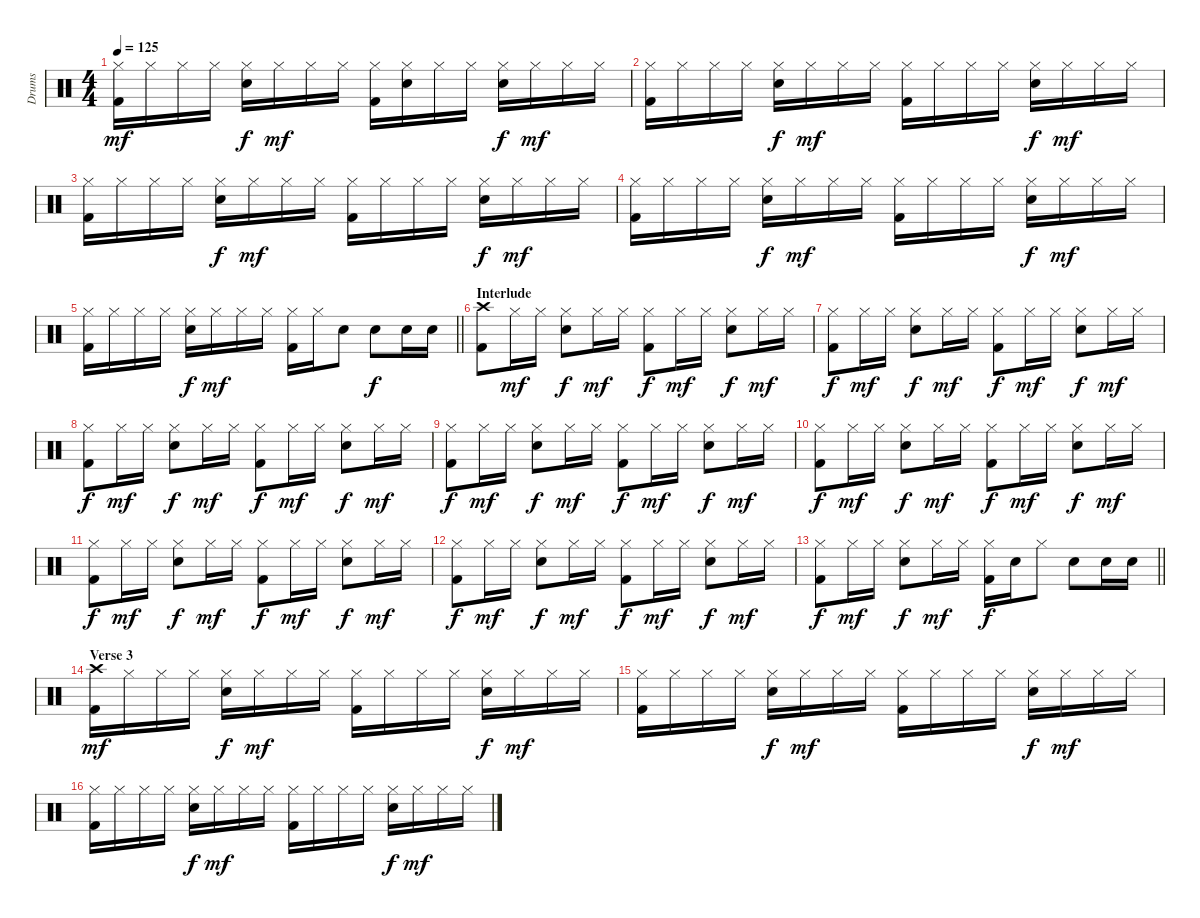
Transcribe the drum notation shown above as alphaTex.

\track ("Drums" "Drums") {instrument percussion}
\staff {score}
\articulation defaults
\ts (4 4)
\tempo 125
\clef neutral
\ks c
("Hi-Hat (closed)" "Kick (hit) 2").16{dy mf} "Hi-Hat (closed)".16 "Hi-Hat (closed)".16 "Hi-Hat (closed)".16 ("Hi-Hat (closed)" "Snare (hit) 2").16{dy f} "Hi-Hat (closed)".16{dy mf} "Hi-Hat (closed)".16 "Hi-Hat (closed)".16 ("Hi-Hat (closed)" "Kick (hit) 2").16 ("Hi-Hat (closed)" "Snare (hit) 2").16 "Hi-Hat (closed)".16 "Hi-Hat (closed)".16 ("Hi-Hat (closed)" "Snare (hit) 2").16{dy f} "Hi-Hat (closed)".16{dy mf} "Hi-Hat (closed)".16 "Hi-Hat (closed)".16 |
("Hi-Hat (closed)" "Kick (hit) 2").16 "Hi-Hat (closed)".16 "Hi-Hat (closed)".16 "Hi-Hat (closed)".16 ("Hi-Hat (closed)" "Snare (hit) 2").16{dy f} "Hi-Hat (closed)".16{dy mf} "Hi-Hat (closed)".16 "Hi-Hat (closed)".16 ("Hi-Hat (closed)" "Kick (hit) 2").16 "Hi-Hat (closed)".16 "Hi-Hat (closed)".16 "Hi-Hat (closed)".16 ("Hi-Hat (closed)" "Snare (hit) 2").16{dy f} "Hi-Hat (closed)".16{dy mf} "Hi-Hat (closed)".16 "Hi-Hat (closed)".16 |
("Hi-Hat (closed)" "Kick (hit) 2").16 "Hi-Hat (closed)".16 "Hi-Hat (closed)".16 "Hi-Hat (closed)".16 ("Hi-Hat (closed)" "Snare (hit) 2").16{dy f} "Hi-Hat (closed)".16{dy mf} "Hi-Hat (closed)".16 "Hi-Hat (closed)".16 ("Hi-Hat (closed)" "Kick (hit) 2").16 "Hi-Hat (closed)".16 "Hi-Hat (closed)".16 "Hi-Hat (closed)".16 ("Hi-Hat (closed)" "Snare (hit) 2").16{dy f} "Hi-Hat (closed)".16{dy mf} "Hi-Hat (closed)".16 "Hi-Hat (closed)".16 |
("Hi-Hat (closed)" "Kick (hit) 2").16 "Hi-Hat (closed)".16 "Hi-Hat (closed)".16 "Hi-Hat (closed)".16 ("Hi-Hat (closed)" "Snare (hit) 2").16{dy f} "Hi-Hat (closed)".16{dy mf} "Hi-Hat (closed)".16 "Hi-Hat (closed)".16 ("Hi-Hat (closed)" "Kick (hit) 2").16 "Hi-Hat (closed)".16 "Hi-Hat (closed)".16 "Hi-Hat (closed)".16 ("Hi-Hat (closed)" "Snare (hit) 2").16{dy f} "Hi-Hat (closed)".16{dy mf} "Hi-Hat (closed)".16 "Hi-Hat (closed)".16 |
\barLineRight lightlight
("Hi-Hat (closed)" "Kick (hit) 2").16 "Hi-Hat (closed)".16 "Hi-Hat (closed)".16 "Hi-Hat (closed)".16 ("Hi-Hat (closed)" "Snare (hit) 2").16{dy f} "Hi-Hat (closed)".16{dy mf} "Hi-Hat (closed)".16 "Hi-Hat (closed)".16 ("Hi-Hat (closed)" "Kick (hit) 2").16 "Hi-Hat (closed)".16 "Snare (hit) 2".8 "Snare (hit) 2".8{dy f} "Snare (hit) 2".16 "Snare (hit) 2".16 |
\section ("" "Interlude")
("Crash high (hit)" "Kick (hit) 2").8 "Hi-Hat (closed)".16{dy mf} "Hi-Hat (closed)".16 ("Hi-Hat (closed)" "Snare (hit) 2").8{dy f} "Hi-Hat (closed)".16{dy mf} "Hi-Hat (closed)".16 ("Hi-Hat (closed)" "Kick (hit) 2").8{dy f} "Hi-Hat (closed)".16{dy mf} "Hi-Hat (closed)".16 ("Hi-Hat (closed)" "Snare (hit) 2").8{dy f} "Hi-Hat (closed)".16{dy mf} "Hi-Hat (closed)".16 |
("Hi-Hat (closed)" "Kick (hit) 2").8{dy f} "Hi-Hat (closed)".16{dy mf} "Hi-Hat (closed)".16 ("Hi-Hat (closed)" "Snare (hit) 2").8{dy f} "Hi-Hat (closed)".16{dy mf} "Hi-Hat (closed)".16 ("Hi-Hat (closed)" "Kick (hit) 2").8{dy f} "Hi-Hat (closed)".16{dy mf} "Hi-Hat (closed)".16 ("Hi-Hat (closed)" "Snare (hit) 2").8{dy f} "Hi-Hat (closed)".16{dy mf} "Hi-Hat (closed)".16 |
("Hi-Hat (closed)" "Kick (hit) 2").8{dy f} "Hi-Hat (closed)".16{dy mf} "Hi-Hat (closed)".16 ("Hi-Hat (closed)" "Snare (hit) 2").8{dy f} "Hi-Hat (closed)".16{dy mf} "Hi-Hat (closed)".16 ("Hi-Hat (closed)" "Kick (hit) 2").8{dy f} "Hi-Hat (closed)".16{dy mf} "Hi-Hat (closed)".16 ("Hi-Hat (closed)" "Snare (hit) 2").8{dy f} "Hi-Hat (closed)".16{dy mf} "Hi-Hat (closed)".16 |
("Hi-Hat (closed)" "Kick (hit) 2").8{dy f} "Hi-Hat (closed)".16{dy mf} "Hi-Hat (closed)".16 ("Hi-Hat (closed)" "Snare (hit) 2").8{dy f} "Hi-Hat (closed)".16{dy mf} "Hi-Hat (closed)".16 ("Hi-Hat (closed)" "Kick (hit) 2").8{dy f} "Hi-Hat (closed)".16{dy mf} "Hi-Hat (closed)".16 ("Hi-Hat (closed)" "Snare (hit) 2").8{dy f} "Hi-Hat (closed)".16{dy mf} "Hi-Hat (closed)".16 |
("Hi-Hat (closed)" "Kick (hit) 2").8{dy f} "Hi-Hat (closed)".16{dy mf} "Hi-Hat (closed)".16 ("Hi-Hat (closed)" "Snare (hit) 2").8{dy f} "Hi-Hat (closed)".16{dy mf} "Hi-Hat (closed)".16 ("Hi-Hat (closed)" "Kick (hit) 2").8{dy f} "Hi-Hat (closed)".16{dy mf} "Hi-Hat (closed)".16 ("Hi-Hat (closed)" "Snare (hit) 2").8{dy f} "Hi-Hat (closed)".16{dy mf} "Hi-Hat (closed)".16 |
("Hi-Hat (closed)" "Kick (hit) 2").8{dy f} "Hi-Hat (closed)".16{dy mf} "Hi-Hat (closed)".16 ("Hi-Hat (closed)" "Snare (hit) 2").8{dy f} "Hi-Hat (closed)".16{dy mf} "Hi-Hat (closed)".16 ("Hi-Hat (closed)" "Kick (hit) 2").8{dy f} "Hi-Hat (closed)".16{dy mf} "Hi-Hat (closed)".16 ("Hi-Hat (closed)" "Snare (hit) 2").8{dy f} "Hi-Hat (closed)".16{dy mf} "Hi-Hat (closed)".16 |
("Hi-Hat (closed)" "Kick (hit) 2").8{dy f} "Hi-Hat (closed)".16{dy mf} "Hi-Hat (closed)".16 ("Hi-Hat (closed)" "Snare (hit) 2").8{dy f} "Hi-Hat (closed)".16{dy mf} "Hi-Hat (closed)".16 ("Hi-Hat (closed)" "Kick (hit) 2").8{dy f} "Hi-Hat (closed)".16{dy mf} "Hi-Hat (closed)".16 ("Hi-Hat (closed)" "Snare (hit) 2").8{dy f} "Hi-Hat (closed)".16{dy mf} "Hi-Hat (closed)".16 |
\barLineRight lightlight
("Hi-Hat (closed)" "Kick (hit) 2").8{dy f} "Hi-Hat (closed)".16{dy mf} "Hi-Hat (closed)".16 ("Hi-Hat (closed)" "Snare (hit) 2").8{dy f} "Hi-Hat (closed)".16{dy mf} "Hi-Hat (closed)".16 ("Hi-Hat (closed)" "Kick (hit) 2").16{dy f} "Snare (hit) 2".16 "Hi-Hat (closed)".8 "Snare (hit) 2".8 "Snare (hit) 2".16 "Snare (hit) 2".16 |
\section ("" "Verse 3")
("Crash high (hit)" "Kick (hit) 2").16{dy mf} "Hi-Hat (closed)".16 "Hi-Hat (closed)".16 "Hi-Hat (closed)".16 ("Hi-Hat (closed)" "Snare (hit) 2").16{dy f} "Hi-Hat (closed)".16{dy mf} "Hi-Hat (closed)".16 "Hi-Hat (closed)".16 ("Hi-Hat (closed)" "Kick (hit) 2").16 "Hi-Hat (closed)".16 "Hi-Hat (closed)".16 "Hi-Hat (closed)".16 ("Hi-Hat (closed)" "Snare (hit) 2").16{dy f} "Hi-Hat (closed)".16{dy mf} "Hi-Hat (closed)".16 "Hi-Hat (closed)".16 |
("Hi-Hat (closed)" "Kick (hit) 2").16 "Hi-Hat (closed)".16 "Hi-Hat (closed)".16 "Hi-Hat (closed)".16 ("Hi-Hat (closed)" "Snare (hit) 2").16{dy f} "Hi-Hat (closed)".16{dy mf} "Hi-Hat (closed)".16 "Hi-Hat (closed)".16 ("Hi-Hat (closed)" "Kick (hit) 2").16 "Hi-Hat (closed)".16 "Hi-Hat (closed)".16 "Hi-Hat (closed)".16 ("Hi-Hat (closed)" "Snare (hit) 2").16{dy f} "Hi-Hat (closed)".16{dy mf} "Hi-Hat (closed)".16 "Hi-Hat (closed)".16 |
("Hi-Hat (closed)" "Kick (hit) 2").16 "Hi-Hat (closed)".16 "Hi-Hat (closed)".16 "Hi-Hat (closed)".16 ("Hi-Hat (closed)" "Snare (hit) 2").16{dy f} "Hi-Hat (closed)".16{dy mf} "Hi-Hat (closed)".16 "Hi-Hat (closed)".16 ("Hi-Hat (closed)" "Kick (hit) 2").16 "Hi-Hat (closed)".16 "Hi-Hat (closed)".16 "Hi-Hat (closed)".16 ("Hi-Hat (closed)" "Snare (hit) 2").16{dy f} "Hi-Hat (closed)".16{dy mf} "Hi-Hat (closed)".16 "Hi-Hat (closed)".16
